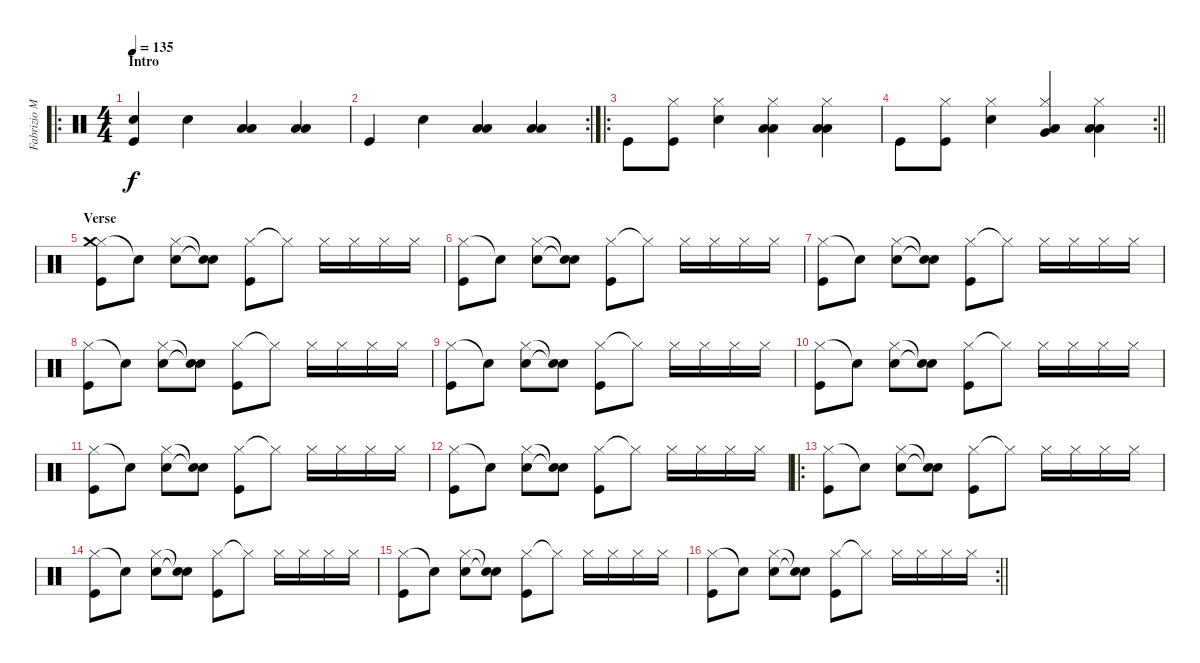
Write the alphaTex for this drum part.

\track ("Fabrizio Moretti" "Fabrizio M") {instrument percussion}
\staff {score}
\articulation defaults
\ro
\ts (4 4)
\section ("" "Intro")
\tempo 135
\clef neutral
\ks c
("Snare (hit)" "Kick (hit)").4{dy f} "Electric Snare (hit)".4 ("Low Tom (hit)" "Low Floor Tom (hit)").4 ("Low Floor Tom (hit)" "Low Floor Tom (hit)").4 |
\rc 2 "Kick (hit)".4 "Electric Snare (hit)".4
("Low Tom (hit)" "Low Floor Tom (hit)").4 ("Low Floor Tom (hit)" "Low Floor Tom (hit)").4 |
\ro "Kick (hit)".8
("Hi-Hat (closed)" "Kick (hit)").8 ("Hi-Hat (closed)" "Electric Snare (hit)").4 ("Hi-Hat (closed)" "Low Tom (hit)" "Low Floor Tom (hit)").4 ("Hi-Hat (closed)" "Low Floor Tom (hit)" "Low Floor Tom (hit)").4 |
\rc 2
\barLineRight lightlight "Kick (hit)".8
("Hi-Hat (closed)" "Kick (hit)").8 ("Hi-Hat (closed)" "Electric Snare (hit)").4 ("Hi-Hat (closed)" "Very Low Tom (hit)" "Low Floor Tom (hit)").4 ("Hi-Hat (closed)" "Low Floor Tom (hit)" "Low Floor Tom (hit)").4 |
\section ("" "Verse")
("Hi-Hat (closed)" "Crash medium (hit)" "Kick (hit)").8 "Snare (hit)"{t}.8 ("Hi-Hat (closed)" "Electric Snare (hit)").8 ("Snare (hit)"{t} "Snare (hit)"{t}).8 ("Hi-Hat (closed)" "Kick (hit)").8 "Hi-Hat (closed)"{t}.8 "Hi-Hat (closed)".16 "Hi-Hat (closed)".16 "Hi-Hat (closed)".16 "Hi-Hat (closed)".16 |
("Hi-Hat (closed)" "Kick (hit)").8 "Snare (hit)"{t}.8 ("Hi-Hat (closed)" "Electric Snare (hit)").8 ("Snare (hit)"{t} "Snare (hit)"{t}).8 ("Hi-Hat (closed)" "Kick (hit)").8 "Hi-Hat (closed)"{t}.8 "Hi-Hat (closed)".16 "Hi-Hat (closed)".16 "Hi-Hat (closed)".16 "Hi-Hat (closed)".16 |
("Hi-Hat (closed)" "Kick (hit)").8 "Snare (hit)"{t}.8 ("Hi-Hat (closed)" "Electric Snare (hit)").8 ("Snare (hit)"{t} "Snare (hit)"{t}).8 ("Hi-Hat (closed)" "Kick (hit)").8 "Hi-Hat (closed)"{t}.8 "Hi-Hat (closed)".16 "Hi-Hat (closed)".16 "Hi-Hat (closed)".16 "Hi-Hat (closed)".16 |
("Hi-Hat (closed)" "Kick (hit)").8 "Snare (hit)"{t}.8 ("Hi-Hat (closed)" "Electric Snare (hit)").8 ("Snare (hit)"{t} "Snare (hit)"{t}).8 ("Hi-Hat (closed)" "Kick (hit)").8 "Hi-Hat (closed)"{t}.8 "Hi-Hat (closed)".16 "Hi-Hat (closed)".16 "Hi-Hat (closed)".16 "Hi-Hat (closed)".16 |
("Hi-Hat (closed)" "Kick (hit)").8 "Snare (hit)"{t}.8 ("Hi-Hat (closed)" "Electric Snare (hit)").8 ("Snare (hit)"{t} "Snare (hit)"{t}).8 ("Hi-Hat (closed)" "Kick (hit)").8 "Hi-Hat (closed)"{t}.8 "Hi-Hat (closed)".16 "Hi-Hat (closed)".16 "Hi-Hat (closed)".16 "Hi-Hat (closed)".16 |
("Hi-Hat (closed)" "Kick (hit)").8 "Snare (hit)"{t}.8 ("Hi-Hat (closed)" "Electric Snare (hit)").8 ("Snare (hit)"{t} "Snare (hit)"{t}).8 ("Hi-Hat (closed)" "Kick (hit)").8 "Hi-Hat (closed)"{t}.8 "Hi-Hat (closed)".16 "Hi-Hat (closed)".16 "Hi-Hat (closed)".16 "Hi-Hat (closed)".16 |
("Hi-Hat (closed)" "Kick (hit)").8 "Snare (hit)"{t}.8 ("Hi-Hat (closed)" "Electric Snare (hit)").8 ("Snare (hit)"{t} "Snare (hit)"{t}).8 ("Hi-Hat (closed)" "Kick (hit)").8 "Hi-Hat (closed)"{t}.8 "Hi-Hat (closed)".16 "Hi-Hat (closed)".16 "Hi-Hat (closed)".16 "Hi-Hat (closed)".16 |
("Hi-Hat (closed)" "Kick (hit)").8 "Snare (hit)"{t}.8 ("Hi-Hat (closed)" "Electric Snare (hit)").8 ("Snare (hit)"{t} "Snare (hit)"{t}).8 ("Hi-Hat (closed)" "Kick (hit)").8 "Hi-Hat (closed)"{t}.8 "Hi-Hat (closed)".16 "Hi-Hat (closed)".16 "Hi-Hat (closed)".16 "Hi-Hat (closed)".16 |
\ro
("Hi-Hat (closed)" "Kick (hit)").8 "Snare (hit)"{t}.8 ("Hi-Hat (closed)" "Electric Snare (hit)").8 ("Snare (hit)"{t} "Snare (hit)"{t}).8 ("Hi-Hat (closed)" "Kick (hit)").8 "Hi-Hat (closed)"{t}.8 "Hi-Hat (closed)".16 "Hi-Hat (closed)".16 "Hi-Hat (closed)".16 "Hi-Hat (closed)".16 |
("Hi-Hat (closed)" "Kick (hit)").8 "Snare (hit)"{t}.8 ("Hi-Hat (closed)" "Electric Snare (hit)").8 ("Snare (hit)"{t} "Snare (hit)"{t}).8 ("Hi-Hat (closed)" "Kick (hit)").8 "Hi-Hat (closed)"{t}.8 "Hi-Hat (closed)".16 "Hi-Hat (closed)".16 "Hi-Hat (closed)".16 "Hi-Hat (closed)".16 |
("Hi-Hat (closed)" "Kick (hit)").8 "Snare (hit)"{t}.8 ("Hi-Hat (closed)" "Electric Snare (hit)").8 ("Snare (hit)"{t} "Snare (hit)"{t}).8 ("Hi-Hat (closed)" "Kick (hit)").8 "Hi-Hat (closed)"{t}.8 "Hi-Hat (closed)".16 "Hi-Hat (closed)".16 "Hi-Hat (closed)".16 "Hi-Hat (closed)".16 |
\rc 2
\barLineRight lightlight
("Hi-Hat (closed)" "Kick (hit)").8 "Snare (hit)"{t}.8 ("Hi-Hat (closed)" "Electric Snare (hit)").8 ("Snare (hit)"{t} "Snare (hit)"{t}).8 ("Hi-Hat (closed)" "Kick (hit)").8 "Hi-Hat (closed)"{t}.8 "Hi-Hat (closed)".16 "Hi-Hat (closed)".16 "Hi-Hat (closed)".16 "Hi-Hat (closed)".16
